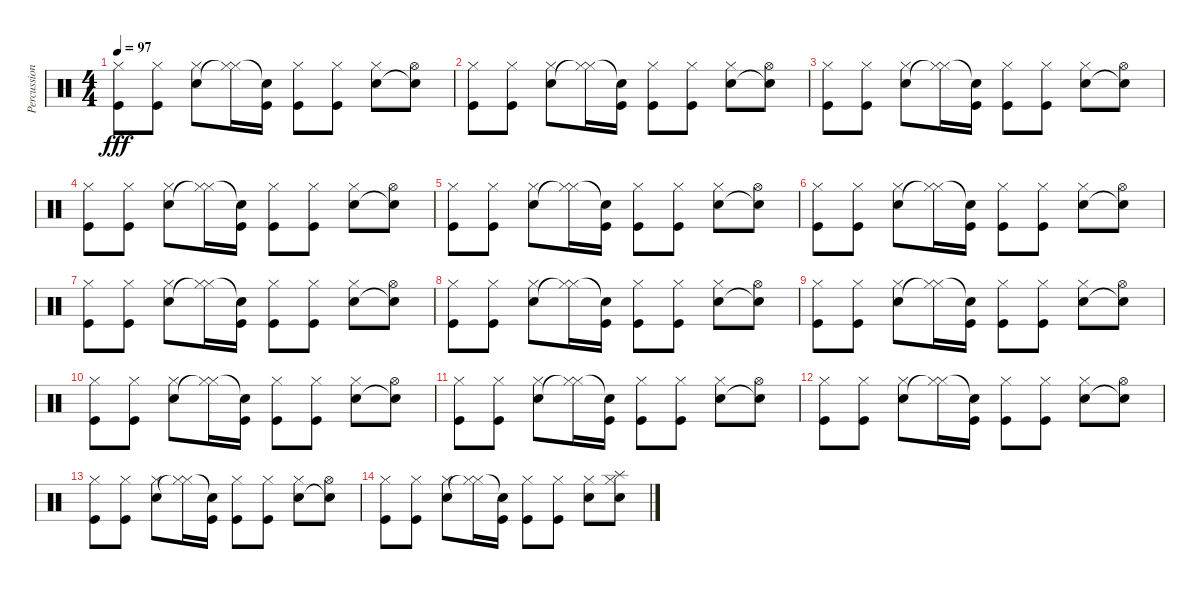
\track ("Percussions" "Percussion") {instrument percussion}
\staff {score}
\articulation defaults
\ts (4 4)
\tempo 97
\clef neutral
\ks c
("Kick (hit)" "Hi-Hat (closed)").8{dy fff} ("Kick (hit)" "Hi-Hat (closed)").8 ("Snare (hit) 2" "Hi-Hat (closed)").8 ("Hi-Hat (closed)"{t} "Hi-Hat (closed)").16 ("Kick (hit)" "Snare (hit)"{t}).16 ("Kick (hit)" "Hi-Hat (closed)").8 ("Kick (hit)" "Hi-Hat (closed)").8 ("Snare (hit) 2" "Hi-Hat (closed)").8 ("Snare (hit)"{t} "Hi-Hat (open)").8 |
("Kick (hit)" "Hi-Hat (closed)").8 ("Kick (hit)" "Hi-Hat (closed)").8 ("Snare (hit) 2" "Hi-Hat (closed)").8 ("Hi-Hat (closed)"{t} "Hi-Hat (closed)").16 ("Kick (hit)" "Snare (hit)"{t}).16 ("Kick (hit)" "Hi-Hat (closed)").8 ("Kick (hit)" "Hi-Hat (closed)").8 ("Snare (hit) 2" "Hi-Hat (closed)").8 ("Snare (hit)"{t} "Hi-Hat (open)").8 |
("Kick (hit)" "Hi-Hat (closed)").8 ("Kick (hit)" "Hi-Hat (closed)").8 ("Snare (hit) 2" "Hi-Hat (closed)").8 ("Hi-Hat (closed)"{t} "Hi-Hat (closed)").16 ("Kick (hit)" "Snare (hit)"{t}).16 ("Kick (hit)" "Hi-Hat (closed)").8 ("Kick (hit)" "Hi-Hat (closed)").8 ("Snare (hit) 2" "Hi-Hat (closed)").8 ("Snare (hit)"{t} "Hi-Hat (open)").8 |
("Kick (hit)" "Hi-Hat (closed)").8 ("Kick (hit)" "Hi-Hat (closed)").8 ("Snare (hit) 2" "Hi-Hat (closed)").8 ("Hi-Hat (closed)"{t} "Hi-Hat (closed)").16 ("Kick (hit)" "Snare (hit)"{t}).16 ("Kick (hit)" "Hi-Hat (closed)").8 ("Kick (hit)" "Hi-Hat (closed)").8 ("Snare (hit) 2" "Hi-Hat (closed)").8 ("Snare (hit)"{t} "Hi-Hat (open)").8 |
("Kick (hit)" "Hi-Hat (closed)").8 ("Kick (hit)" "Hi-Hat (closed)").8 ("Snare (hit) 2" "Hi-Hat (closed)").8 ("Hi-Hat (closed)"{t} "Hi-Hat (closed)").16 ("Kick (hit)" "Snare (hit)"{t}).16 ("Kick (hit)" "Hi-Hat (closed)").8 ("Kick (hit)" "Hi-Hat (closed)").8 ("Snare (hit) 2" "Hi-Hat (closed)").8 ("Snare (hit)"{t} "Hi-Hat (open)").8 |
("Kick (hit)" "Hi-Hat (closed)").8 ("Kick (hit)" "Hi-Hat (closed)").8 ("Snare (hit) 2" "Hi-Hat (closed)").8 ("Hi-Hat (closed)"{t} "Hi-Hat (closed)").16 ("Kick (hit)" "Snare (hit)"{t}).16 ("Kick (hit)" "Hi-Hat (closed)").8 ("Kick (hit)" "Hi-Hat (closed)").8 ("Snare (hit) 2" "Hi-Hat (closed)").8 ("Snare (hit)"{t} "Hi-Hat (open)").8 |
("Kick (hit)" "Hi-Hat (closed)").8 ("Kick (hit)" "Hi-Hat (closed)").8 ("Snare (hit) 2" "Hi-Hat (closed)").8 ("Hi-Hat (closed)"{t} "Hi-Hat (closed)").16 ("Kick (hit)" "Snare (hit)"{t}).16 ("Kick (hit)" "Hi-Hat (closed)").8 ("Kick (hit)" "Hi-Hat (closed)").8 ("Snare (hit) 2" "Hi-Hat (closed)").8 ("Snare (hit)"{t} "Hi-Hat (open)").8 |
("Kick (hit)" "Hi-Hat (closed)").8 ("Kick (hit)" "Hi-Hat (closed)").8 ("Snare (hit) 2" "Hi-Hat (closed)").8 ("Hi-Hat (closed)"{t} "Hi-Hat (closed)").16 ("Kick (hit)" "Snare (hit)"{t}).16 ("Kick (hit)" "Hi-Hat (closed)").8 ("Kick (hit)" "Hi-Hat (closed)").8 ("Snare (hit) 2" "Hi-Hat (closed)").8 ("Snare (hit)"{t} "Hi-Hat (open)").8 |
("Kick (hit)" "Hi-Hat (closed)").8 ("Kick (hit)" "Hi-Hat (closed)").8 ("Snare (hit) 2" "Hi-Hat (closed)").8 ("Hi-Hat (closed)"{t} "Hi-Hat (closed)").16 ("Kick (hit)" "Snare (hit)"{t}).16 ("Kick (hit)" "Hi-Hat (closed)").8 ("Kick (hit)" "Hi-Hat (closed)").8 ("Snare (hit) 2" "Hi-Hat (closed)").8 ("Snare (hit)"{t} "Hi-Hat (open)").8 |
("Kick (hit)" "Hi-Hat (closed)").8 ("Kick (hit)" "Hi-Hat (closed)").8 ("Snare (hit) 2" "Hi-Hat (closed)").8 ("Hi-Hat (closed)"{t} "Hi-Hat (closed)").16 ("Kick (hit)" "Snare (hit)"{t}).16 ("Kick (hit)" "Hi-Hat (closed)").8 ("Kick (hit)" "Hi-Hat (closed)").8 ("Snare (hit) 2" "Hi-Hat (closed)").8 ("Snare (hit)"{t} "Hi-Hat (open)").8 |
("Kick (hit)" "Hi-Hat (closed)").8 ("Kick (hit)" "Hi-Hat (closed)").8 ("Snare (hit) 2" "Hi-Hat (closed)").8 ("Hi-Hat (closed)"{t} "Hi-Hat (closed)").16 ("Kick (hit)" "Snare (hit)"{t}).16 ("Kick (hit)" "Hi-Hat (closed)").8 ("Kick (hit)" "Hi-Hat (closed)").8 ("Snare (hit) 2" "Hi-Hat (closed)").8 ("Snare (hit)"{t} "Hi-Hat (open)").8 |
("Kick (hit)" "Hi-Hat (closed)").8 ("Kick (hit)" "Hi-Hat (closed)").8 ("Snare (hit) 2" "Hi-Hat (closed)").8 ("Hi-Hat (closed)"{t} "Hi-Hat (closed)").16 ("Kick (hit)" "Snare (hit)"{t}).16 ("Kick (hit)" "Hi-Hat (closed)").8 ("Kick (hit)" "Hi-Hat (closed)").8 ("Snare (hit) 2" "Hi-Hat (closed)").8 ("Snare (hit)"{t} "Hi-Hat (open)").8 |
("Kick (hit)" "Hi-Hat (closed)").8 ("Kick (hit)" "Hi-Hat (closed)").8 ("Snare (hit) 2" "Hi-Hat (closed)").8 ("Hi-Hat (closed)"{t} "Hi-Hat (closed)").16 ("Kick (hit)" "Snare (hit)"{t}).16 ("Kick (hit)" "Hi-Hat (closed)").8 ("Kick (hit)" "Hi-Hat (closed)").8 ("Snare (hit) 2" "Hi-Hat (closed)").8 ("Snare (hit)"{t} "Hi-Hat (open)").8 |
("Kick (hit)" "Hi-Hat (closed)").8 ("Kick (hit)" "Hi-Hat (closed)").8 ("Snare (hit) 2" "Hi-Hat (closed)").8 ("Hi-Hat (closed)"{t} "Hi-Hat (closed)").16 ("Kick (hit)" "Snare (hit)"{t}).16 ("Kick (hit)" "Hi-Hat (closed)").8 ("Kick (hit)" "Hi-Hat (closed)").8 ("Snare (hit) 2" "Hi-Hat (closed)").8 ("Snare (hit) 2" "Hi-Hat (closed)" "Splash (hit)").8
